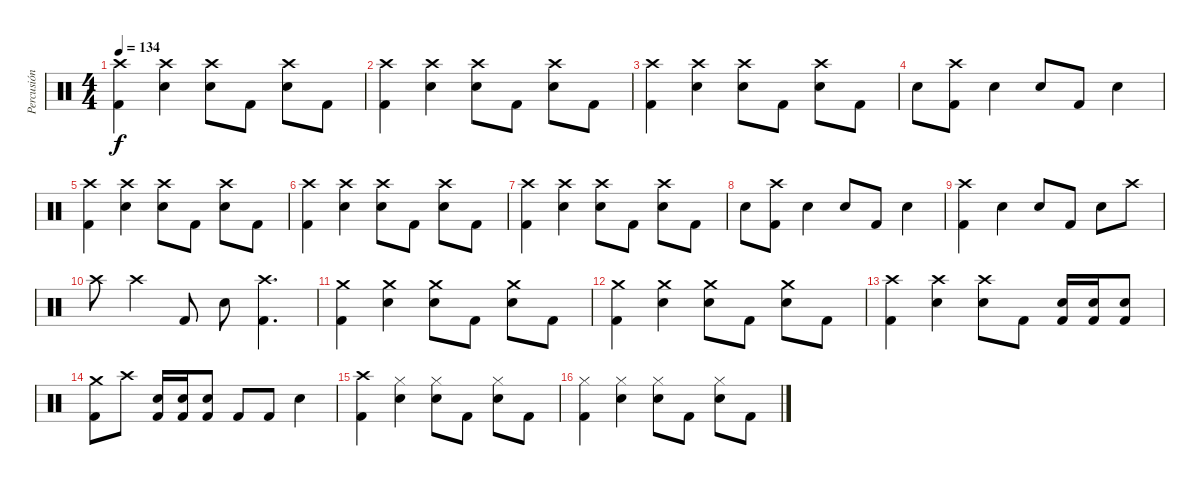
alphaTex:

\track ("Percusión" "Percusión") {instrument percussion}
\staff {score}
\articulation defaults
\ts (4 4)
\tempo 134
\clef neutral
\ks c
("Crash high (hit)" "Kick (hit) 2").4{dy f} ("Crash high (hit)" "Snare (hit) 2").4 ("Crash high (hit)" "Snare (hit) 2").8 "Kick (hit) 2".8 ("Crash high (hit)" "Snare (hit) 2").8 "Kick (hit) 2".8 |
("Crash high (hit)" "Kick (hit) 2").4 ("Crash high (hit)" "Snare (hit) 2").4 ("Crash high (hit)" "Snare (hit) 2").8 "Kick (hit) 2".8 ("Crash high (hit)" "Snare (hit) 2").8 "Kick (hit) 2".8 |
("Crash high (hit)" "Kick (hit) 2").4 ("Crash high (hit)" "Snare (hit) 2").4 ("Crash high (hit)" "Snare (hit) 2").8 "Kick (hit) 2".8 ("Crash high (hit)" "Snare (hit) 2").8 "Kick (hit) 2".8 |
"Snare (hit) 2".8 ("Crash high (hit)" "Kick (hit) 2").8 "Snare (hit) 2".4 "Snare (hit) 2".8 "Kick (hit) 2".8 "Snare (hit) 2".4 |
("Crash high (hit)" "Kick (hit) 2").4 ("Crash high (hit)" "Snare (hit) 2").4 ("Crash high (hit)" "Snare (hit) 2").8 "Kick (hit) 2".8 ("Crash high (hit)" "Snare (hit) 2").8 "Kick (hit) 2".8 |
("Crash high (hit)" "Kick (hit) 2").4 ("Crash high (hit)" "Snare (hit) 2").4 ("Crash high (hit)" "Snare (hit) 2").8 "Kick (hit) 2".8 ("Crash high (hit)" "Snare (hit) 2").8 "Kick (hit) 2".8 |
("Crash high (hit)" "Kick (hit) 2").4 ("Crash high (hit)" "Snare (hit) 2").4 ("Crash high (hit)" "Snare (hit) 2").8 "Kick (hit) 2".8 ("Crash high (hit)" "Snare (hit) 2").8 "Kick (hit) 2".8 |
"Snare (hit) 2".8 ("Crash high (hit)" "Kick (hit) 2").8 "Snare (hit) 2".4 "Snare (hit) 2".8 "Kick (hit) 2".8 "Snare (hit) 2".4 |
("Crash high (hit)" "Kick (hit) 2").4 "Snare (hit) 2".4 "Snare (hit) 2".8 "Kick (hit) 2".8 "Snare (hit) 2".8 "Crash high (hit)".8 |
"Crash high (hit)".8 "Crash high (hit)".4 "Kick (hit) 2".8 "Snare (hit) 2".8 ("Crash high (hit)" "Kick (hit) 2").4{d} |
("Crash medium (hit)" "Kick (hit) 2").4 ("Crash medium (hit)" "Snare (hit) 2").4 ("Crash medium (hit)" "Snare (hit) 2").8 "Kick (hit) 2".8 ("Crash medium (hit)" "Snare (hit) 2").8 "Kick (hit) 2".8 |
("Crash medium (hit)" "Kick (hit) 2").4 ("Crash medium (hit)" "Snare (hit) 2").4 ("Crash medium (hit)" "Snare (hit) 2").8 "Kick (hit) 2".8 ("Crash medium (hit)" "Snare (hit) 2").8 "Kick (hit) 2".8 |
("Crash high (hit)" "Kick (hit) 2").4 ("Crash high (hit)" "Snare (hit) 2").4 ("Crash high (hit)" "Snare (hit) 2").8 "Kick (hit) 2".8 ("Snare (hit) 2" "Kick (hit) 2").16 ("Snare (hit) 2" "Kick (hit) 2").16 ("Snare (hit) 2" "Kick (hit) 2").8 |
("Crash medium (hit)" "Kick (hit) 2").8 "Crash high (hit)".8 ("Snare (hit) 2" "Kick (hit) 2").16 ("Snare (hit) 2" "Kick (hit) 2").16 ("Snare (hit) 2" "Kick (hit) 2").8 "Kick (hit) 2".8 "Kick (hit) 2".8 "Snare (hit) 2".4 |
("Crash high (hit)" "Kick (hit) 2").4 ("Hi-Hat (closed)" "Snare (hit) 2").4 ("Hi-Hat (closed)" "Snare (hit) 2").8 "Kick (hit) 2".8 ("Hi-Hat (closed)" "Snare (hit) 2").8 "Kick (hit) 2".8 |
("Hi-Hat (closed)" "Kick (hit) 2").4 ("Hi-Hat (closed)" "Snare (hit) 2").4 ("Hi-Hat (closed)" "Snare (hit) 2").8 "Kick (hit) 2".8 ("Hi-Hat (closed)" "Snare (hit) 2").8 "Kick (hit) 2".8
